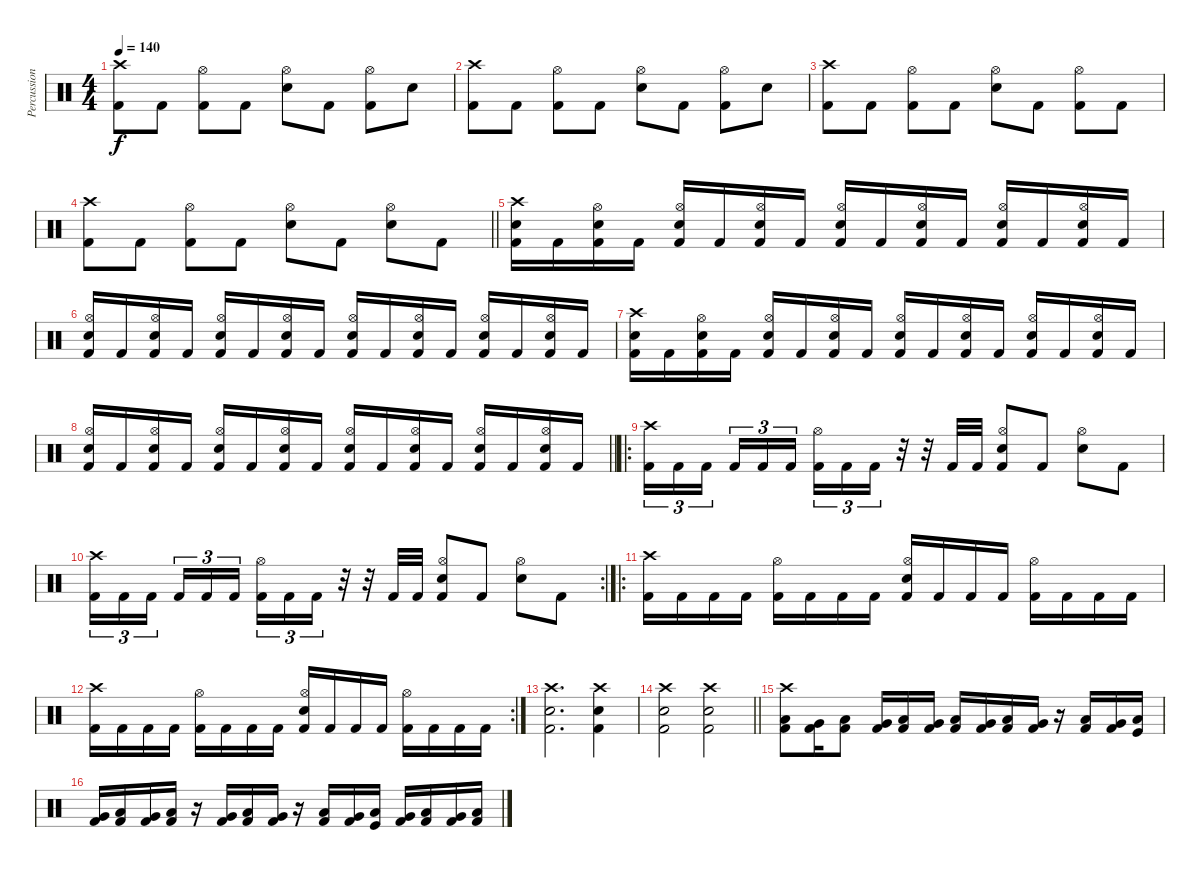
\track ("Percussion" "Percussion") {instrument percussion}
\staff {score}
\articulation defaults
\ts (4 4)
\section ("" "")
\tempo 140
\clef neutral
\ks c
("Crash high (hit)" "Kick (hit) 2").8{dy f} "Kick (hit) 2".8 ("Hi-Hat (open)" "Kick (hit) 2").8 "Kick (hit) 2".8 ("Hi-Hat (open)" "Electric Snare (hit)").8 "Kick (hit) 2".8 ("Hi-Hat (open)" "Kick (hit) 2").8 "Electric Snare (hit)".8 |
("Crash high (hit)" "Kick (hit) 2").8 "Kick (hit) 2".8 ("Hi-Hat (open)" "Kick (hit) 2").8 "Kick (hit) 2".8 ("Hi-Hat (open)" "Electric Snare (hit)").8 "Kick (hit) 2".8 ("Hi-Hat (open)" "Kick (hit) 2").8 "Electric Snare (hit)".8 |
("Crash high (hit)" "Kick (hit) 2").8 "Kick (hit) 2".8 ("Hi-Hat (open)" "Kick (hit) 2").8 "Kick (hit) 2".8 ("Hi-Hat (open)" "Electric Snare (hit)").8 "Kick (hit) 2".8 ("Hi-Hat (open)" "Kick (hit) 2").8 "Kick (hit) 2".8 |
\barLineRight lightlight
("Crash high (hit)" "Kick (hit) 2").8 "Kick (hit) 2".8 ("Hi-Hat (open)" "Kick (hit) 2").8 "Kick (hit) 2".8 ("Hi-Hat (open)" "Electric Snare (hit)").8 "Kick (hit) 2".8 ("Hi-Hat (open)" "Electric Snare (hit)").8 "Kick (hit) 2".8 |
\section ("" "")
("Crash high (hit)" "Electric Snare (hit)" "Kick (hit) 2").16 "Kick (hit) 2".16 ("Hi-Hat (open)" "Electric Snare (hit)" "Kick (hit) 2").16 "Kick (hit) 2".16 ("Hi-Hat (open)" "Electric Snare (hit)" "Kick (hit) 2").16 "Kick (hit) 2".16 ("Hi-Hat (open)" "Electric Snare (hit)" "Kick (hit) 2").16 "Kick (hit) 2".16 ("Hi-Hat (open)" "Electric Snare (hit)" "Kick (hit) 2").16 "Kick (hit) 2".16 ("Hi-Hat (open)" "Electric Snare (hit)" "Kick (hit) 2").16 "Kick (hit) 2".16 ("Hi-Hat (open)" "Electric Snare (hit)" "Kick (hit) 2").16 "Kick (hit) 2".16 ("Hi-Hat (open)" "Electric Snare (hit)" "Kick (hit) 2").16 "Kick (hit) 2".16 |
("Hi-Hat (open)" "Electric Snare (hit)" "Kick (hit) 2").16 "Kick (hit) 2".16 ("Hi-Hat (open)" "Electric Snare (hit)" "Kick (hit) 2").16 "Kick (hit) 2".16 ("Hi-Hat (open)" "Electric Snare (hit)" "Kick (hit) 2").16 "Kick (hit) 2".16 ("Hi-Hat (open)" "Electric Snare (hit)" "Kick (hit) 2").16 "Kick (hit) 2".16 ("Hi-Hat (open)" "Electric Snare (hit)" "Kick (hit) 2").16 "Kick (hit) 2".16 ("Hi-Hat (open)" "Electric Snare (hit)" "Kick (hit) 2").16 "Kick (hit) 2".16 ("Hi-Hat (open)" "Electric Snare (hit)" "Kick (hit) 2").16 "Kick (hit) 2".16 ("Hi-Hat (open)" "Electric Snare (hit)" "Kick (hit) 2").16 "Kick (hit) 2".16 |
("Crash high (hit)" "Electric Snare (hit)" "Kick (hit) 2").16 "Kick (hit) 2".16 ("Hi-Hat (open)" "Electric Snare (hit)" "Kick (hit) 2").16 "Kick (hit) 2".16 ("Hi-Hat (open)" "Electric Snare (hit)" "Kick (hit) 2").16 "Kick (hit) 2".16 ("Hi-Hat (open)" "Electric Snare (hit)" "Kick (hit) 2").16 "Kick (hit) 2".16 ("Hi-Hat (open)" "Electric Snare (hit)" "Kick (hit) 2").16 "Kick (hit) 2".16 ("Hi-Hat (open)" "Electric Snare (hit)" "Kick (hit) 2").16 "Kick (hit) 2".16 ("Hi-Hat (open)" "Electric Snare (hit)" "Kick (hit) 2").16 "Kick (hit) 2".16 ("Hi-Hat (open)" "Electric Snare (hit)" "Kick (hit) 2").16 "Kick (hit) 2".16 |
\barLineRight lightlight
("Hi-Hat (open)" "Electric Snare (hit)" "Kick (hit) 2").16 "Kick (hit) 2".16 ("Hi-Hat (open)" "Electric Snare (hit)" "Kick (hit) 2").16 "Kick (hit) 2".16 ("Hi-Hat (open)" "Electric Snare (hit)" "Kick (hit) 2").16 "Kick (hit) 2".16 ("Hi-Hat (open)" "Electric Snare (hit)" "Kick (hit) 2").16 "Kick (hit) 2".16 ("Hi-Hat (open)" "Electric Snare (hit)" "Kick (hit) 2").16 "Kick (hit) 2".16 ("Hi-Hat (open)" "Electric Snare (hit)" "Kick (hit) 2").16 "Kick (hit) 2".16 ("Hi-Hat (open)" "Electric Snare (hit)" "Kick (hit) 2").16 "Kick (hit) 2".16 ("Hi-Hat (open)" "Electric Snare (hit)" "Kick (hit) 2").16 "Kick (hit) 2".16 |
\ro
\section ("" "")
("Crash high (hit)" "Kick (hit) 2").16{tu (3 2)} "Kick (hit) 2".16{tu (3 2)} "Kick (hit) 2".16{tu (3 2) beam splitsecondary} "Kick (hit) 2".16{tu (3 2)} "Kick (hit) 2".16{tu (3 2)} "Kick (hit) 2".16{tu (3 2)} ("Hi-Hat (open)" "Kick (hit) 2").16{tu (3 2)} "Kick (hit) 2".16{tu (3 2)} "Kick (hit) 2".16{tu (3 2)} r.32 r.32 "Kick (hit) 2".32 "Kick (hit) 2".32 ("Hi-Hat (open)" "Electric Snare (hit)" "Kick (hit) 2").8 "Kick (hit) 2".8 ("Hi-Hat (open)" "Electric Snare (hit)").8 "Kick (hit) 2".8 |
\rc 2
("Crash high (hit)" "Kick (hit) 2").16{tu (3 2)} "Kick (hit) 2".16{tu (3 2)} "Kick (hit) 2".16{tu (3 2) beam splitsecondary} "Kick (hit) 2".16{tu (3 2)} "Kick (hit) 2".16{tu (3 2)} "Kick (hit) 2".16{tu (3 2)} ("Hi-Hat (open)" "Kick (hit) 2").16{tu (3 2)} "Kick (hit) 2".16{tu (3 2)} "Kick (hit) 2".16{tu (3 2)} r.32 r.32 "Kick (hit) 2".32 "Kick (hit) 2".32 ("Hi-Hat (open)" "Electric Snare (hit)" "Kick (hit) 2").8 "Kick (hit) 2".8 ("Hi-Hat (open)" "Electric Snare (hit)").8 "Kick (hit) 2".8 |
\ro
("Crash high (hit)" "Kick (hit) 2").16 "Kick (hit) 2".16 "Kick (hit) 2".16 "Kick (hit) 2".16 ("Hi-Hat (open)" "Kick (hit) 2").16 "Kick (hit) 2".16 "Kick (hit) 2".16 "Kick (hit) 2".16 ("Hi-Hat (open)" "Electric Snare (hit)" "Kick (hit) 2").16 "Kick (hit) 2".16 "Kick (hit) 2".16 "Kick (hit) 2".16 ("Hi-Hat (open)" "Kick (hit) 2").16 "Kick (hit) 2".16 "Kick (hit) 2".16 "Kick (hit) 2".16 |
\rc 2
("Crash high (hit)" "Kick (hit) 2").16 "Kick (hit) 2".16 "Kick (hit) 2".16 "Kick (hit) 2".16 ("Hi-Hat (open)" "Kick (hit) 2").16 "Kick (hit) 2".16 "Kick (hit) 2".16 "Kick (hit) 2".16 ("Hi-Hat (open)" "Electric Snare (hit)" "Kick (hit) 2").16 "Kick (hit) 2".16 "Kick (hit) 2".16 "Kick (hit) 2".16 ("Hi-Hat (open)" "Kick (hit) 2").16 "Kick (hit) 2".16 "Kick (hit) 2".16 "Kick (hit) 2".16 |
("Crash high (hit)" "Electric Snare (hit)" "Kick (hit) 2").2{d} ("Crash high (hit)" "Electric Snare (hit)" "Kick (hit) 2").4 |
\barLineRight lightlight
("Crash high (hit)" "Electric Snare (hit)" "Kick (hit) 2").2 ("Crash high (hit)" "Electric Snare (hit)" "Kick (hit) 2").2 |
\section ("" "")
("Crash high (hit)" "Low Tom (hit)" "Kick (hit) 2").8 ("Very Low Tom (hit)" "Kick (hit) 2").16 ("Low Tom (hit)" "Kick (hit) 2").8 ("Very Low Tom (hit)" "Kick (hit) 2").16 ("Low Floor Tom (hit)" "Kick (hit) 2").16 ("Very Low Tom (hit)" "Kick (hit) 2").16 ("Low Tom (hit)" "Kick (hit) 2").16 ("Very Low Tom (hit)" "Kick (hit) 2").16 ("Low Floor Tom (hit)" "Kick (hit) 2").16 ("Very Low Tom (hit)" "Kick (hit) 2").16 r.16 ("Low Floor Tom (hit)" "Kick (hit) 2").16 ("Very Low Tom (hit)" "Kick (hit) 2").16 ("Low Tom (hit)" "Kick (hit)").16 |
("Very Low Tom (hit)" "Kick (hit) 2").16 ("Low Floor Tom (hit)" "Kick (hit) 2").16 ("Very Low Tom (hit)" "Kick (hit) 2").16 ("Low Tom (hit)" "Kick (hit) 2").16 r.16 ("Very Low Tom (hit)" "Kick (hit) 2").16 ("Low Floor Tom (hit)" "Kick (hit) 2").16 ("Very Low Tom (hit)" "Kick (hit) 2").16 r.16 ("Low Floor Tom (hit)" "Kick (hit) 2").16 ("Very Low Tom (hit)" "Kick (hit) 2").16 ("Low Tom (hit)" "Kick (hit)").16 ("Very Low Tom (hit)" "Kick (hit) 2").16 ("Low Floor Tom (hit)" "Kick (hit) 2").16 ("Very Low Tom (hit)" "Kick (hit) 2").16 ("Low Tom (hit)" "Kick (hit) 2").16
